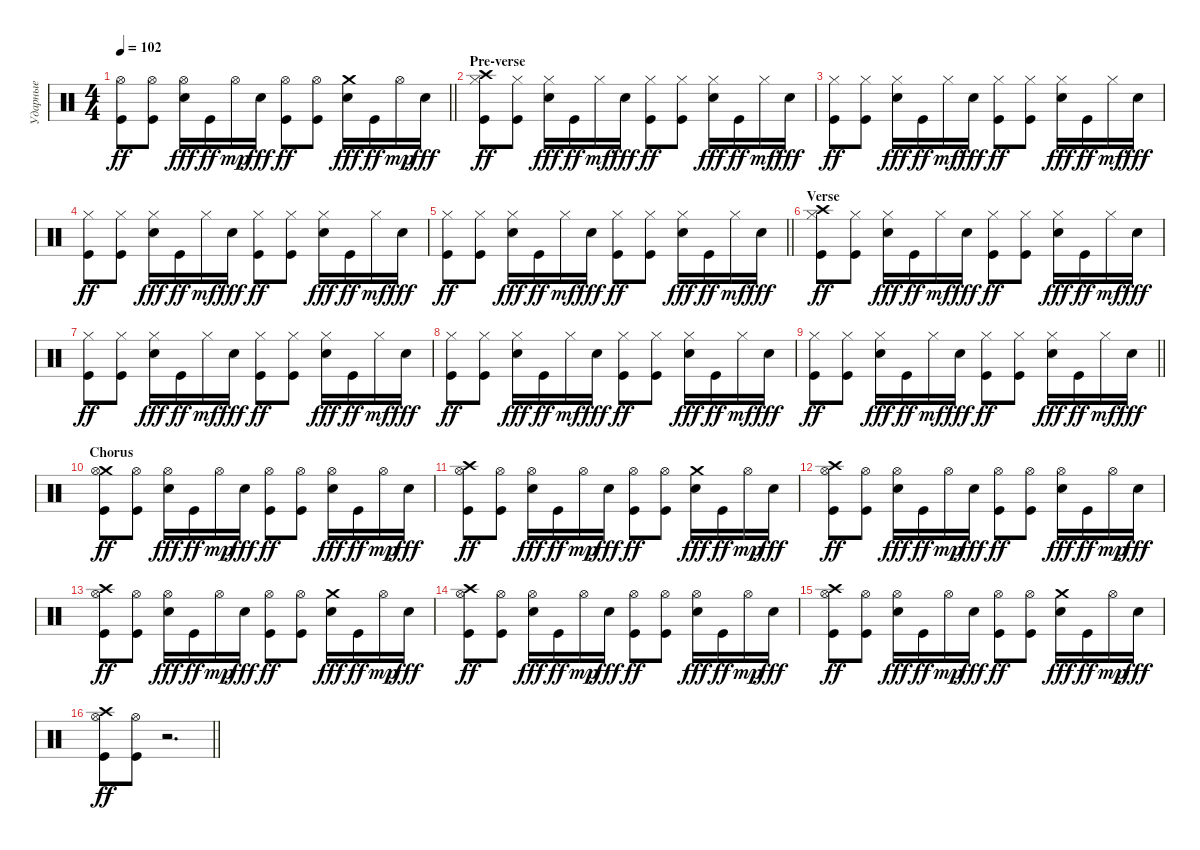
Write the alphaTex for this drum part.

\track ("Ударные" "Ударные") {instrument percussion}
\staff {score}
\articulation defaults
\ts (4 4)
\tempo 102
\clef neutral
\barLineRight lightlight
\ks c
("Hi-Hat (open)" "Kick (hit)").8{dy ff} ("Hi-Hat (open)" "Kick (hit)").8 ("Hi-Hat (open)" "Electric Snare (hit)").16{dy fff} "Kick (hit)".16{dy ff} "Hi-Hat (open)".16{dy mp} "Electric Snare (hit)".16{dy fff} ("Hi-Hat (open)" "Kick (hit)").8{dy ff} ("Hi-Hat (open)" "Kick (hit)").8 ("Crash medium (hit)" "Electric Snare (hit)").16{dy fff} "Kick (hit)".16{dy ff} "Hi-Hat (open)".16{dy mp} "Electric Snare (hit)".16{dy fff} |
\section ("" "Pre-verse")
("Crash high (hit)" "Hi-Hat (closed)" "Kick (hit)").8{dy ff} ("Hi-Hat (closed)" "Kick (hit)").8 ("Hi-Hat (closed)" "Electric Snare (hit)").16{dy fff} "Kick (hit)".16{dy ff} "Hi-Hat (closed)".16{dy mf} "Electric Snare (hit)".16{dy fff} ("Hi-Hat (closed)" "Kick (hit)").8{dy ff} ("Hi-Hat (closed)" "Kick (hit)").8 ("Hi-Hat (closed)" "Electric Snare (hit)").16{dy fff} "Kick (hit)".16{dy ff} "Hi-Hat (closed)".16{dy mf} "Electric Snare (hit)".16{dy fff} |
("Hi-Hat (closed)" "Kick (hit)").8{dy ff} ("Hi-Hat (closed)" "Kick (hit)").8 ("Hi-Hat (closed)" "Electric Snare (hit)").16{dy fff} "Kick (hit)".16{dy ff} "Hi-Hat (closed)".16{dy mf} "Electric Snare (hit)".16{dy fff} ("Hi-Hat (closed)" "Kick (hit)").8{dy ff} ("Hi-Hat (closed)" "Kick (hit)").8 ("Hi-Hat (closed)" "Electric Snare (hit)").16{dy fff} "Kick (hit)".16{dy ff} "Hi-Hat (closed)".16{dy mf} "Electric Snare (hit)".16{dy fff} |
("Hi-Hat (closed)" "Kick (hit)").8{dy ff} ("Hi-Hat (closed)" "Kick (hit)").8 ("Hi-Hat (closed)" "Electric Snare (hit)").16{dy fff} "Kick (hit)".16{dy ff} "Hi-Hat (closed)".16{dy mf} "Electric Snare (hit)".16{dy fff} ("Hi-Hat (closed)" "Kick (hit)").8{dy ff} ("Hi-Hat (closed)" "Kick (hit)").8 ("Hi-Hat (closed)" "Electric Snare (hit)").16{dy fff} "Kick (hit)".16{dy ff} "Hi-Hat (closed)".16{dy mf} "Electric Snare (hit)".16{dy fff} |
\barLineRight lightlight
("Hi-Hat (closed)" "Kick (hit)").8{dy ff} ("Hi-Hat (closed)" "Kick (hit)").8 ("Hi-Hat (closed)" "Electric Snare (hit)").16{dy fff} "Kick (hit)".16{dy ff} "Hi-Hat (closed)".16{dy mf} "Electric Snare (hit)".16{dy fff} ("Hi-Hat (closed)" "Kick (hit)").8{dy ff} ("Hi-Hat (closed)" "Kick (hit)").8 ("Hi-Hat (closed)" "Electric Snare (hit)").16{dy fff} "Kick (hit)".16{dy ff} "Hi-Hat (closed)".16{dy mf} "Electric Snare (hit)".16{dy fff} |
\section ("" "Verse")
("Crash high (hit)" "Hi-Hat (closed)" "Kick (hit)").8{dy ff} ("Hi-Hat (closed)" "Kick (hit)").8 ("Hi-Hat (closed)" "Electric Snare (hit)").16{dy fff} "Kick (hit)".16{dy ff} "Hi-Hat (closed)".16{dy mf} "Electric Snare (hit)".16{dy fff} ("Hi-Hat (closed)" "Kick (hit)").8{dy ff} ("Hi-Hat (closed)" "Kick (hit)").8 ("Hi-Hat (closed)" "Electric Snare (hit)").16{dy fff} "Kick (hit)".16{dy ff} "Hi-Hat (closed)".16{dy mf} "Electric Snare (hit)".16{dy fff} |
("Hi-Hat (closed)" "Kick (hit)").8{dy ff} ("Hi-Hat (closed)" "Kick (hit)").8 ("Hi-Hat (closed)" "Electric Snare (hit)").16{dy fff} "Kick (hit)".16{dy ff} "Hi-Hat (closed)".16{dy mf} "Electric Snare (hit)".16{dy fff} ("Hi-Hat (closed)" "Kick (hit)").8{dy ff} ("Hi-Hat (closed)" "Kick (hit)").8 ("Hi-Hat (closed)" "Electric Snare (hit)").16{dy fff} "Kick (hit)".16{dy ff} "Hi-Hat (closed)".16{dy mf} "Electric Snare (hit)".16{dy fff} |
("Hi-Hat (closed)" "Kick (hit)").8{dy ff} ("Hi-Hat (closed)" "Kick (hit)").8 ("Hi-Hat (closed)" "Electric Snare (hit)").16{dy fff} "Kick (hit)".16{dy ff} "Hi-Hat (closed)".16{dy mf} "Electric Snare (hit)".16{dy fff} ("Hi-Hat (closed)" "Kick (hit)").8{dy ff} ("Hi-Hat (closed)" "Kick (hit)").8 ("Hi-Hat (closed)" "Electric Snare (hit)").16{dy fff} "Kick (hit)".16{dy ff} "Hi-Hat (closed)".16{dy mf} "Electric Snare (hit)".16{dy fff} |
\barLineRight lightlight
("Hi-Hat (closed)" "Kick (hit)").8{dy ff} ("Hi-Hat (closed)" "Kick (hit)").8 ("Hi-Hat (closed)" "Electric Snare (hit)").16{dy fff} "Kick (hit)".16{dy ff} "Hi-Hat (closed)".16{dy mf} "Electric Snare (hit)".16{dy fff} ("Hi-Hat (closed)" "Kick (hit)").8{dy ff} ("Hi-Hat (closed)" "Kick (hit)").8 ("Hi-Hat (closed)" "Electric Snare (hit)").16{dy fff} "Kick (hit)".16{dy ff} "Hi-Hat (closed)".16{dy mf} "Electric Snare (hit)".16{dy fff} |
\section ("" "Chorus")
("Crash medium (hit)" "Hi-Hat (open)" "Kick (hit)").8{dy ff} ("Hi-Hat (open)" "Kick (hit)").8 ("Hi-Hat (open)" "Electric Snare (hit)").16{dy fff} "Kick (hit)".16{dy ff} "Hi-Hat (open)".16{dy mp} "Electric Snare (hit)".16{dy fff} ("Hi-Hat (open)" "Kick (hit)").8{dy ff} ("Hi-Hat (open)" "Kick (hit)").8 ("Hi-Hat (open)" "Electric Snare (hit)").16{dy fff} "Kick (hit)".16{dy ff} "Hi-Hat (open)".16{dy mp} "Electric Snare (hit)".16{dy fff} |
("Crash high (hit)" "Hi-Hat (open)" "Kick (hit)").8{dy ff} ("Hi-Hat (open)" "Kick (hit)").8 ("Hi-Hat (open)" "Electric Snare (hit)").16{dy fff} "Kick (hit)".16{dy ff} "Hi-Hat (open)".16{dy mp} "Electric Snare (hit)".16{dy fff} ("Hi-Hat (open)" "Kick (hit)").8{dy ff} ("Hi-Hat (open)" "Kick (hit)").8 ("Crash medium (hit)" "Electric Snare (hit)").16{dy fff} "Kick (hit)".16{dy ff} "Hi-Hat (open)".16{dy mp} "Electric Snare (hit)".16{dy fff} |
("Crash high (hit)" "Hi-Hat (open)" "Kick (hit)").8{dy ff} ("Hi-Hat (open)" "Kick (hit)").8 ("Hi-Hat (open)" "Electric Snare (hit)").16{dy fff} "Kick (hit)".16{dy ff} "Hi-Hat (open)".16{dy mp} "Electric Snare (hit)".16{dy fff} ("Hi-Hat (open)" "Kick (hit)").8{dy ff} ("Hi-Hat (open)" "Kick (hit)").8 ("Hi-Hat (open)" "Electric Snare (hit)").16{dy fff} "Kick (hit)".16{dy ff} "Hi-Hat (open)".16{dy mp} "Electric Snare (hit)".16{dy fff} |
("Crash high (hit)" "Hi-Hat (open)" "Kick (hit)").8{dy ff} ("Hi-Hat (open)" "Kick (hit)").8 ("Hi-Hat (open)" "Electric Snare (hit)").16{dy fff} "Kick (hit)".16{dy ff} "Hi-Hat (open)".16{dy mp} "Electric Snare (hit)".16{dy fff} ("Hi-Hat (open)" "Kick (hit)").8{dy ff} ("Hi-Hat (open)" "Kick (hit)").8 ("Crash medium (hit)" "Electric Snare (hit)").16{dy fff} "Kick (hit)".16{dy ff} "Hi-Hat (open)".16{dy mp} "Electric Snare (hit)".16{dy fff} |
("Crash high (hit)" "Hi-Hat (open)" "Kick (hit)").8{dy ff} ("Hi-Hat (open)" "Kick (hit)").8 ("Hi-Hat (open)" "Electric Snare (hit)").16{dy fff} "Kick (hit)".16{dy ff} "Hi-Hat (open)".16{dy mp} "Electric Snare (hit)".16{dy fff} ("Hi-Hat (open)" "Kick (hit)").8{dy ff} ("Hi-Hat (open)" "Kick (hit)").8 ("Hi-Hat (open)" "Electric Snare (hit)").16{dy fff} "Kick (hit)".16{dy ff} "Hi-Hat (open)".16{dy mp} "Electric Snare (hit)".16{dy fff} |
("Crash high (hit)" "Hi-Hat (open)" "Kick (hit)").8{dy ff} ("Hi-Hat (open)" "Kick (hit)").8 ("Hi-Hat (open)" "Electric Snare (hit)").16{dy fff} "Kick (hit)".16{dy ff} "Hi-Hat (open)".16{dy mp} "Electric Snare (hit)".16{dy fff} ("Hi-Hat (open)" "Kick (hit)").8{dy ff} ("Hi-Hat (open)" "Kick (hit)").8 ("Crash medium (hit)" "Electric Snare (hit)").16{dy fff} "Kick (hit)".16{dy ff} "Hi-Hat (open)".16{dy mp} "Electric Snare (hit)".16{dy fff} |
\barLineRight lightlight
("Crash high (hit)" "Hi-Hat (open)" "Kick (hit)").8{dy ff} ("Hi-Hat (open)" "Kick (hit)").8 r.2{d}
